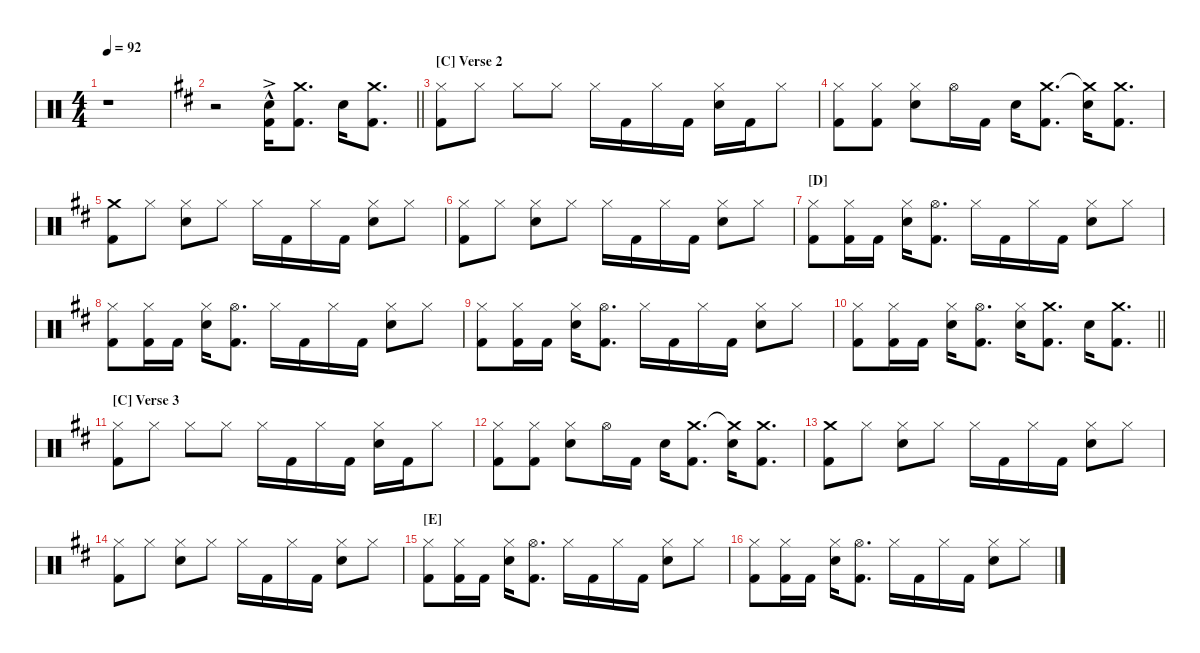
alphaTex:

\hideDynamics
\bracketExtendMode nobrackets
\singleTrackTrackNamePolicy hidden
\multiTrackTrackNamePolicy hidden
\firstSystemTrackNameMode fullname
\firstSystemTrackNameOrientation horizontal
\otherSystemsTrackNameOrientation horizontal
\track ("Drumkit" "Drums") {instrument percussion}
\staff {score}
\articulation defaults
\ts (4 4)
\tempo 92
\clef neutral
\ks c
r.1{dy f beam Down} |
\barLineRight lightlight
\ks d
r.2{beam Down} ("Snare (hit) 2"{hac acc forcenatural} "Kick (hit) 2"{ac acc forcenatural}).16{beam Down} ("Crash medium (hit)"{acc forcenatural} "Kick (hit) 2"{acc forcenatural}).8{d beam Down} "Snare (hit) 2"{acc forcenatural}.16{beam Down} ("Crash medium (hit)"{acc forcenatural} "Kick (hit) 2"{acc forcenatural}).8{d beam Down} |
\section ("C" "Verse 2")
("Hi-Hat (closed)"{acc forcenatural} "Kick (hit) 2"{acc forcenatural}).8{beam Down} "Hi-Hat (closed)"{acc forcenatural}.8{beam Down} "Hi-Hat (closed)"{acc forcenatural}.8{beam Down} "Hi-Hat (closed)"{acc forcenatural}.8{beam Down} "Hi-Hat (closed)"{acc forcenatural}.16{beam Down} "Kick (hit) 2"{acc forcenatural}.16{beam Down} "Hi-Hat (closed)"{acc forcenatural}.16{beam Down} "Kick (hit) 2"{acc forcenatural}.16{beam Down} ("Hi-Hat (closed)"{acc forcenatural} "Snare (hit) 2"{acc forcenatural}).16{beam Down} "Kick (hit) 2"{acc forcenatural}.16{beam Down} "Hi-Hat (closed)"{acc forcenatural}.8{beam Down} |
("Hi-Hat (closed)"{acc forcenatural} "Kick (hit) 2"{acc forcenatural}).8{beam Down} ("Hi-Hat (closed)"{acc forcenatural} "Kick (hit) 2"{acc forcenatural}).8{beam Down} ("Hi-Hat (closed)"{acc forcenatural} "Snare (hit) 2"{acc forcenatural}).8{beam Down} "Hi-Hat (open)"{acc forcenatural}.16{beam Down} "Kick (hit) 2"{acc forcenatural}.16{beam Down} "Snare (hit) 2"{acc forcenatural}.16{beam Down} ("Crash medium (hit)"{acc forcenatural} "Kick (hit) 2"{acc forcenatural}).8{d beam Down} ("Crash medium (hit)"{t acc forcenatural} "Snare (hit) 2"{acc forcenatural}).16{beam Down} ("Crash medium (hit)"{acc forcenatural} "Kick (hit) 2"{acc forcenatural}).8{d beam Down} |
("Crash medium (hit)"{acc forcenatural} "Kick (hit) 2"{acc forcenatural}).8{beam Down} "Hi-Hat (closed)"{acc forcenatural}.8{beam Down} ("Hi-Hat (closed)"{acc forcenatural} "Snare (hit) 2"{acc forcenatural}).8{beam Down} "Hi-Hat (closed)"{acc forcenatural}.8{beam Down} "Hi-Hat (closed)"{acc forcenatural}.16{beam Down} "Kick (hit) 2"{acc forcenatural}.16{beam Down} "Hi-Hat (closed)"{acc forcenatural}.16{beam Down} "Kick (hit) 2"{acc forcenatural}.16{beam Down} ("Hi-Hat (closed)"{acc forcenatural} "Snare (hit) 2"{acc forcenatural}).8{beam Down} "Hi-Hat (closed)"{acc forcenatural}.8{beam Down} |
("Hi-Hat (closed)"{acc forcenatural} "Kick (hit) 2"{acc forcenatural}).8{beam Down} "Hi-Hat (closed)"{acc forcenatural}.8{beam Down} ("Hi-Hat (closed)"{acc forcenatural} "Snare (hit) 2"{acc forcenatural}).8{beam Down} "Hi-Hat (closed)"{acc forcenatural}.8{beam Down} "Hi-Hat (closed)"{acc forcenatural}.16{beam Down} "Kick (hit) 2"{acc forcenatural}.16{beam Down} "Hi-Hat (closed)"{acc forcenatural}.16{beam Down} "Kick (hit) 2"{acc forcenatural}.16{beam Down} ("Hi-Hat (closed)"{acc forcenatural} "Snare (hit) 2"{acc forcenatural}).8{beam Down} "Hi-Hat (closed)"{acc forcenatural}.8{beam Down} |
\section ("D" "")
("Hi-Hat (closed)"{acc forcenatural} "Kick (hit) 2"{acc forcenatural}).8{beam Down} ("Hi-Hat (closed)"{acc forcenatural} "Kick (hit) 2"{acc forcenatural}).16{beam Down} "Kick (hit) 2"{acc forcenatural}.16{beam Down} ("Hi-Hat (closed)"{acc forcenatural} "Snare (hit) 2"{acc forcenatural}).16{beam Down} ("Hi-Hat (open)"{acc forcenatural} "Kick (hit) 2"{acc forcenatural}).8{d beam Down} "Hi-Hat (closed)"{acc forcenatural}.16{beam Down} "Kick (hit) 2"{acc forcenatural}.16{beam Down} "Hi-Hat (closed)"{acc forcenatural}.16{beam Down} "Kick (hit) 2"{acc forcenatural}.16{beam Down} ("Hi-Hat (closed)"{acc forcenatural} "Snare (hit) 2"{acc forcenatural}).8{beam Down} "Hi-Hat (closed)"{acc forcenatural}.8{beam Down} |
("Hi-Hat (closed)"{acc forcenatural} "Kick (hit) 2"{acc forcenatural}).8{beam Down} ("Hi-Hat (closed)"{acc forcenatural} "Kick (hit) 2"{acc forcenatural}).16{beam Down} "Kick (hit) 2"{acc forcenatural}.16{beam Down} ("Hi-Hat (closed)"{acc forcenatural} "Snare (hit) 2"{acc forcenatural}).16{beam Down} ("Hi-Hat (open)"{acc forcenatural} "Kick (hit) 2"{acc forcenatural}).8{d beam Down} "Hi-Hat (closed)"{acc forcenatural}.16{beam Down} "Kick (hit) 2"{acc forcenatural}.16{beam Down} "Hi-Hat (closed)"{acc forcenatural}.16{beam Down} "Kick (hit) 2"{acc forcenatural}.16{beam Down} ("Hi-Hat (closed)"{acc forcenatural} "Snare (hit) 2"{acc forcenatural}).8{beam Down} "Hi-Hat (closed)"{acc forcenatural}.8{beam Down} |
("Hi-Hat (closed)"{acc forcenatural} "Kick (hit) 2"{acc forcenatural}).8{beam Down} ("Hi-Hat (closed)"{acc forcenatural} "Kick (hit) 2"{acc forcenatural}).16{beam Down} "Kick (hit) 2"{acc forcenatural}.16{beam Down} ("Hi-Hat (closed)"{acc forcenatural} "Snare (hit) 2"{acc forcenatural}).16{beam Down} ("Hi-Hat (open)"{acc forcenatural} "Kick (hit) 2"{acc forcenatural}).8{d beam Down} "Hi-Hat (closed)"{acc forcenatural}.16{beam Down} "Kick (hit) 2"{acc forcenatural}.16{beam Down} "Hi-Hat (closed)"{acc forcenatural}.16{beam Down} "Kick (hit) 2"{acc forcenatural}.16{beam Down} ("Hi-Hat (closed)"{acc forcenatural} "Snare (hit) 2"{acc forcenatural}).8{beam Down} "Hi-Hat (closed)"{acc forcenatural}.8{beam Down} |
\barLineRight lightlight
("Hi-Hat (closed)"{acc forcenatural} "Kick (hit) 2"{acc forcenatural}).8{beam Down} ("Hi-Hat (closed)"{acc forcenatural} "Kick (hit) 2"{acc forcenatural}).16{beam Down} "Kick (hit) 2"{acc forcenatural}.16{beam Down} ("Hi-Hat (closed)"{acc forcenatural} "Snare (hit) 2"{acc forcenatural}).16{beam Down} ("Hi-Hat (open)"{acc forcenatural} "Kick (hit) 2"{acc forcenatural}).8{d beam Down} ("Hi-Hat (closed)"{acc forcenatural} "Snare (hit) 2"{acc forcenatural}).16{beam Down} ("Crash medium (hit)"{acc forcenatural} "Kick (hit) 2"{acc forcenatural}).8{d beam Down} "Snare (hit) 2"{acc forcenatural}.16{beam Down} ("Crash medium (hit)"{acc forcenatural} "Kick (hit) 2"{acc forcenatural}).8{d beam Down} |
\section ("C" "Verse 3")
("Hi-Hat (closed)"{acc forcenatural} "Kick (hit) 2"{acc forcenatural}).8{beam Down} "Hi-Hat (closed)"{acc forcenatural}.8{beam Down} "Hi-Hat (closed)"{acc forcenatural}.8{beam Down} "Hi-Hat (closed)"{acc forcenatural}.8{beam Down} "Hi-Hat (closed)"{acc forcenatural}.16{beam Down} "Kick (hit) 2"{acc forcenatural}.16{beam Down} "Hi-Hat (closed)"{acc forcenatural}.16{beam Down} "Kick (hit) 2"{acc forcenatural}.16{beam Down} ("Hi-Hat (closed)"{acc forcenatural} "Snare (hit) 2"{acc forcenatural}).16{beam Down} "Kick (hit) 2"{acc forcenatural}.16{beam Down} "Hi-Hat (closed)"{acc forcenatural}.8{beam Down} |
("Hi-Hat (closed)"{acc forcenatural} "Kick (hit) 2"{acc forcenatural}).8{beam Down} ("Hi-Hat (closed)"{acc forcenatural} "Kick (hit) 2"{acc forcenatural}).8{beam Down} ("Hi-Hat (closed)"{acc forcenatural} "Snare (hit) 2"{acc forcenatural}).8{beam Down} "Hi-Hat (open)"{acc forcenatural}.16{beam Down} "Kick (hit) 2"{acc forcenatural}.16{beam Down} "Snare (hit) 2"{acc forcenatural}.16{beam Down} ("Crash medium (hit)"{acc forcenatural} "Kick (hit) 2"{acc forcenatural}).8{d beam Down} ("Crash medium (hit)"{t acc forcenatural} "Snare (hit) 2"{acc forcenatural}).16{beam Down} ("Crash medium (hit)"{acc forcenatural} "Kick (hit) 2"{acc forcenatural}).8{d beam Down} |
("Crash medium (hit)"{acc forcenatural} "Kick (hit) 2"{acc forcenatural}).8{beam Down} "Hi-Hat (closed)"{acc forcenatural}.8{beam Down} ("Hi-Hat (closed)"{acc forcenatural} "Snare (hit) 2"{acc forcenatural}).8{beam Down} "Hi-Hat (closed)"{acc forcenatural}.8{beam Down} "Hi-Hat (closed)"{acc forcenatural}.16{beam Down} "Kick (hit) 2"{acc forcenatural}.16{beam Down} "Hi-Hat (closed)"{acc forcenatural}.16{beam Down} "Kick (hit) 2"{acc forcenatural}.16{beam Down} ("Hi-Hat (closed)"{acc forcenatural} "Snare (hit) 2"{acc forcenatural}).8{beam Down} "Hi-Hat (closed)"{acc forcenatural}.8{beam Down} |
("Hi-Hat (closed)"{acc forcenatural} "Kick (hit) 2"{acc forcenatural}).8{beam Down} "Hi-Hat (closed)"{acc forcenatural}.8{beam Down} ("Hi-Hat (closed)"{acc forcenatural} "Snare (hit) 2"{acc forcenatural}).8{beam Down} "Hi-Hat (closed)"{acc forcenatural}.8{beam Down} "Hi-Hat (closed)"{acc forcenatural}.16{beam Down} "Kick (hit) 2"{acc forcenatural}.16{beam Down} "Hi-Hat (closed)"{acc forcenatural}.16{beam Down} "Kick (hit) 2"{acc forcenatural}.16{beam Down} ("Hi-Hat (closed)"{acc forcenatural} "Snare (hit) 2"{acc forcenatural}).8{beam Down} "Hi-Hat (closed)"{acc forcenatural}.8{beam Down} |
\section ("E" "")
("Hi-Hat (closed)"{acc forcenatural} "Kick (hit) 2"{acc forcenatural}).8{beam Down} ("Hi-Hat (closed)"{acc forcenatural} "Kick (hit) 2"{acc forcenatural}).16{beam Down} "Kick (hit) 2"{acc forcenatural}.16{beam Down} ("Hi-Hat (closed)"{acc forcenatural} "Snare (hit) 2"{acc forcenatural}).16{beam Down} ("Hi-Hat (open)"{acc forcenatural} "Kick (hit) 2"{acc forcenatural}).8{d beam Down} "Hi-Hat (closed)"{acc forcenatural}.16{beam Down} "Kick (hit) 2"{acc forcenatural}.16{beam Down} "Hi-Hat (closed)"{acc forcenatural}.16{beam Down} "Kick (hit) 2"{acc forcenatural}.16{beam Down} ("Hi-Hat (closed)"{acc forcenatural} "Snare (hit) 2"{acc forcenatural}).8{beam Down} "Hi-Hat (closed)"{acc forcenatural}.8{beam Down} |
("Hi-Hat (closed)"{acc forcenatural} "Kick (hit) 2"{acc forcenatural}).8{beam Down} ("Hi-Hat (closed)"{acc forcenatural} "Kick (hit) 2"{acc forcenatural}).16{beam Down} "Kick (hit) 2"{acc forcenatural}.16{beam Down} ("Hi-Hat (closed)"{acc forcenatural} "Snare (hit) 2"{acc forcenatural}).16{beam Down} ("Hi-Hat (open)"{acc forcenatural} "Kick (hit) 2"{acc forcenatural}).8{d beam Down} "Hi-Hat (closed)"{acc forcenatural}.16{beam Down} "Kick (hit) 2"{acc forcenatural}.16{beam Down} "Hi-Hat (closed)"{acc forcenatural}.16{beam Down} "Kick (hit) 2"{acc forcenatural}.16{beam Down} ("Hi-Hat (closed)"{acc forcenatural} "Snare (hit) 2"{acc forcenatural}).8{beam Down} "Hi-Hat (closed)"{acc forcenatural}.8{beam Down}
